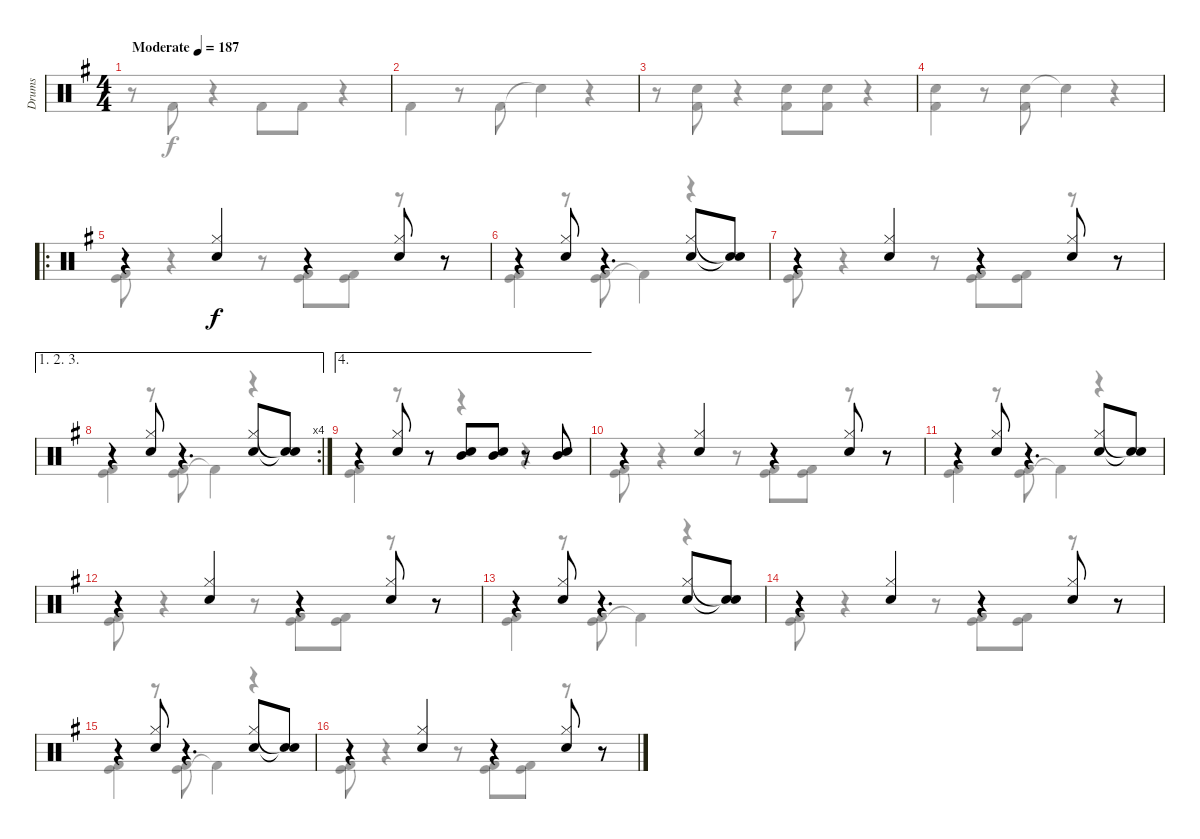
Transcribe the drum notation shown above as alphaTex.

\track ("Drums" "Drums") {instrument percussion}
\staff {score}
\articulation defaults
\voice
\ts (4 4)
\tempo (187 "Moderate")
\clef neutral
\ks g
|
|
|
|
\ro
r.4 ("Hi-Hat (closed)" "Electric Snare (hit)").4 r.4 ("Hi-Hat (closed)" "Electric Snare (hit)").8 r.8 |
r.4 ("Hi-Hat (closed)" "Electric Snare (hit)").8 r.4{d} ("Hi-Hat (closed)" "Electric Snare (hit)").8 ("Snare (hit)"{t} "Snare (hit)"{t}).8 |
r.4 ("Hi-Hat (closed)" "Electric Snare (hit)").4 r.4 ("Hi-Hat (closed)" "Electric Snare (hit)").8 r.8 |
\ae (1 2 3)
\rc 4
r.4 ("Hi-Hat (closed)" "Electric Snare (hit)").8 r.4{d} ("Hi-Hat (closed)" "Electric Snare (hit)").8 ("Snare (hit)"{t} "Snare (hit)"{t}).8 |
\ae 4
r.4 ("Hi-Hat (closed)" "Electric Snare (hit)").8 r.8 ("Electric Snare (hit)" "Mid Tom (hit)").8 ("Electric Snare (hit)" "Mid Tom (hit)").8 r.8 ("Electric Snare (hit)" "Mid Tom (hit)").8 |
r.4 ("Hi-Hat (closed)" "Electric Snare (hit)").4 r.4 ("Hi-Hat (closed)" "Electric Snare (hit)").8 r.8 |
r.4 ("Hi-Hat (closed)" "Electric Snare (hit)").8 r.4{d} ("Hi-Hat (closed)" "Electric Snare (hit)").8 ("Snare (hit)"{t} "Snare (hit)"{t}).8 |
r.4 ("Hi-Hat (closed)" "Electric Snare (hit)").4 r.4 ("Hi-Hat (closed)" "Electric Snare (hit)").8 r.8 |
r.4 ("Hi-Hat (closed)" "Electric Snare (hit)").8 r.4{d} ("Hi-Hat (closed)" "Electric Snare (hit)").8 ("Snare (hit)"{t} "Snare (hit)"{t}).8 |
r.4 ("Hi-Hat (closed)" "Electric Snare (hit)").4 r.4 ("Hi-Hat (closed)" "Electric Snare (hit)").8 r.8 |
r.4 ("Hi-Hat (closed)" "Electric Snare (hit)").8 r.4{d} ("Hi-Hat (closed)" "Electric Snare (hit)").8 ("Snare (hit)"{t} "Snare (hit)"{t}).8 |
r.4 ("Hi-Hat (closed)" "Electric Snare (hit)").4 r.4 ("Hi-Hat (closed)" "Electric Snare (hit)").8 r.8
\voice
\clef neutral
\ottava regular
\simile none
\ks g
r.8{dy f} "Kick (hit) 2".8 r.4 "Kick (hit) 2".8 "Kick (hit) 2".8 r.4 |
"Kick (hit) 2".4 r.8 "Kick (hit) 2".8 "Snare (hit)"{t}.4 r.4 |
r.8 ("Electric Snare (hit)" "Kick (hit) 2").8 r.4 ("Electric Snare (hit)" "Kick (hit) 2").8 ("Electric Snare (hit)" "Kick (hit) 2").8 r.4 |
("Electric Snare (hit)" "Kick (hit) 2").4 r.8 ("Electric Snare (hit)" "Kick (hit) 2").8 "Snare (hit)"{t}.4 r.4 |
("Kick (hit)" "Kick (hit) 2").8 r.4 r.8 ("Kick (hit)" "Kick (hit) 2").8 ("Kick (hit)" "Kick (hit) 2").8 r.8 r.8 |
("Kick (hit)" "Kick (hit) 2").4 r.8 ("Kick (hit)" "Kick (hit) 2").8 "Kick (hit) 2"{t}.4 r.4 |
("Kick (hit)" "Kick (hit) 2").8 r.4 r.8 ("Kick (hit)" "Kick (hit) 2").8 ("Kick (hit)" "Kick (hit) 2").8 r.8 r.8 |
("Kick (hit)" "Kick (hit) 2").4 r.8 ("Kick (hit)" "Kick (hit) 2").8 "Kick (hit) 2"{t}.4 r.4 |
("Kick (hit)" "Kick (hit) 2").4 r.8 r.8 r.4 r.4 |
("Kick (hit)" "Kick (hit) 2").8 r.4 r.8 ("Kick (hit)" "Kick (hit) 2").8 ("Kick (hit)" "Kick (hit) 2").8 r.8 r.8 |
("Kick (hit)" "Kick (hit) 2").4 r.8 ("Kick (hit)" "Kick (hit) 2").8 "Kick (hit) 2"{t}.4 r.4 |
("Kick (hit)" "Kick (hit) 2").8 r.4 r.8 ("Kick (hit)" "Kick (hit) 2").8 ("Kick (hit)" "Kick (hit) 2").8 r.8 r.8 |
("Kick (hit)" "Kick (hit) 2").4 r.8 ("Kick (hit)" "Kick (hit) 2").8 "Kick (hit) 2"{t}.4 r.4 |
("Kick (hit)" "Kick (hit) 2").8 r.4 r.8 ("Kick (hit)" "Kick (hit) 2").8 ("Kick (hit)" "Kick (hit) 2").8 r.8 r.8 |
("Kick (hit)" "Kick (hit) 2").4 r.8 ("Kick (hit)" "Kick (hit) 2").8 "Kick (hit) 2"{t}.4 r.4 |
("Kick (hit)" "Kick (hit) 2").8 r.4 r.8 ("Kick (hit)" "Kick (hit) 2").8 ("Kick (hit)" "Kick (hit) 2").8 r.8 r.8
